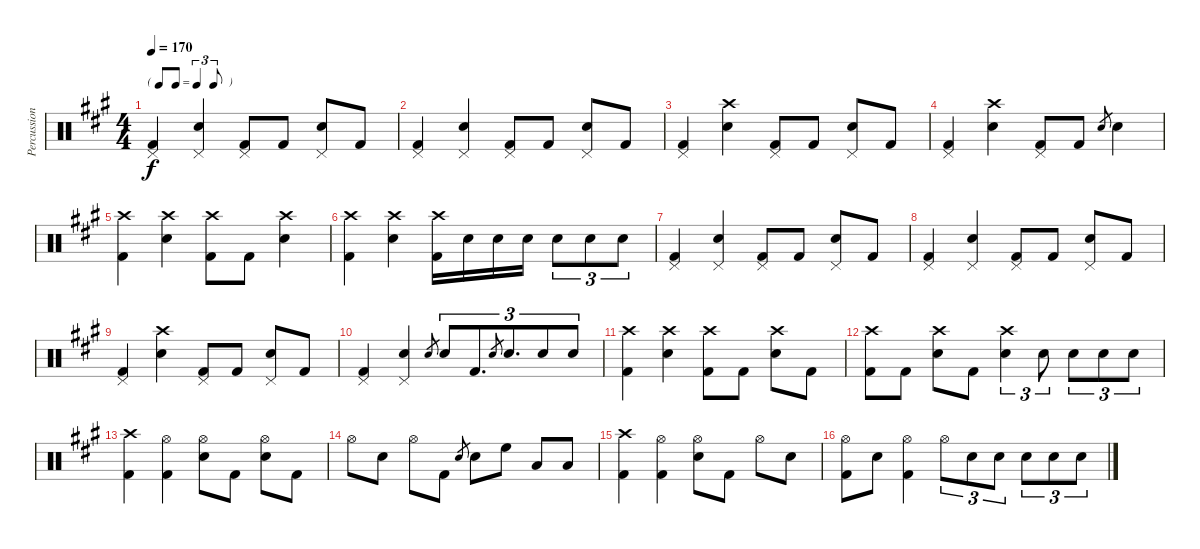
\track ("Percussion" "Percussion") {instrument percussion}
\staff {score}
\articulation defaults
\ts (4 4)
\tf triplet8th
\tempo 170
\clef neutral
\ks a
("Pedal Hi-Hat (hit)" "Kick (hit) 2").4{dy f} ("Pedal Hi-Hat (hit)" "Electric Snare (hit)").4 ("Pedal Hi-Hat (hit)" "Kick (hit) 2").8 "Kick (hit) 2".8 ("Pedal Hi-Hat (hit)" "Electric Snare (hit)").8 "Kick (hit) 2".8 |
("Pedal Hi-Hat (hit)" "Kick (hit) 2").4 ("Pedal Hi-Hat (hit)" "Electric Snare (hit)").4 ("Pedal Hi-Hat (hit)" "Kick (hit) 2").8 "Kick (hit) 2".8 ("Pedal Hi-Hat (hit)" "Electric Snare (hit)").8 "Kick (hit) 2".8 |
("Pedal Hi-Hat (hit)" "Kick (hit) 2").4 ("Crash high (hit)" "Electric Snare (hit)").4 ("Pedal Hi-Hat (hit)" "Kick (hit) 2").8 "Kick (hit) 2".8 ("Pedal Hi-Hat (hit)" "Electric Snare (hit)").8 "Kick (hit) 2".8 |
("Pedal Hi-Hat (hit)" "Kick (hit) 2").4 ("Crash high (hit)" "Electric Snare (hit)").4 ("Pedal Hi-Hat (hit)" "Kick (hit) 2").8 "Kick (hit) 2".8 "Electric Snare (hit)".8{gr} "Electric Snare (hit)".4 |
("Crash high (hit)" "Kick (hit) 2").4 ("Crash high (hit)" "Electric Snare (hit)").4 ("Crash high (hit)" "Kick (hit) 2").8 "Kick (hit) 2".8 ("Crash high (hit)" "Electric Snare (hit)").4 |
("Crash high (hit)" "Kick (hit) 2").4 ("Crash high (hit)" "Electric Snare (hit)").4 ("Crash high (hit)" "Kick (hit) 2").16 "Electric Snare (hit)".16 "Electric Snare (hit)".16 "Electric Snare (hit)".16 "Electric Snare (hit)".8{tu (3 2)} "Electric Snare (hit)".8{tu (3 2)} "Electric Snare (hit)".8{tu (3 2)} |
("Pedal Hi-Hat (hit)" "Kick (hit) 2").4 ("Pedal Hi-Hat (hit)" "Electric Snare (hit)").4 ("Pedal Hi-Hat (hit)" "Kick (hit) 2").8 "Kick (hit) 2".8 ("Pedal Hi-Hat (hit)" "Electric Snare (hit)").8 "Kick (hit) 2".8 |
("Pedal Hi-Hat (hit)" "Kick (hit) 2").4 ("Pedal Hi-Hat (hit)" "Electric Snare (hit)").4 ("Pedal Hi-Hat (hit)" "Kick (hit) 2").8 "Kick (hit) 2".8 ("Pedal Hi-Hat (hit)" "Electric Snare (hit)").8 "Kick (hit) 2".8 |
("Pedal Hi-Hat (hit)" "Kick (hit) 2").4 ("Crash high (hit)" "Electric Snare (hit)").4 ("Pedal Hi-Hat (hit)" "Kick (hit) 2").8 "Kick (hit) 2".8 ("Pedal Hi-Hat (hit)" "Electric Snare (hit)").8 "Kick (hit) 2".8 |
("Pedal Hi-Hat (hit)" "Kick (hit) 2").4 ("Pedal Hi-Hat (hit)" "Electric Snare (hit)").4 "Electric Snare (hit)".8{gr} "Electric Snare (hit)".8{tu (3 2)} "Kick (hit) 2".8{d tu (3 2)} "Electric Snare (hit)".8{gr} "Electric Snare (hit)".8{d tu (3 2)} "Electric Snare (hit)".8{tu (3 2)} "Electric Snare (hit)".8{tu (3 2)} |
("Crash high (hit)" "Kick (hit) 2").4 ("Crash high (hit)" "Electric Snare (hit)").4 ("Crash high (hit)" "Kick (hit) 2").8 "Kick (hit) 2".8 ("Crash high (hit)" "Electric Snare (hit)").8 "Kick (hit) 2".8 |
("Crash high (hit)" "Kick (hit) 2").8 "Kick (hit) 2".8 ("Crash high (hit)" "Electric Snare (hit)").8 "Kick (hit) 2".8 ("Crash high (hit)" "Electric Snare (hit)").4{tu (3 2)} "Electric Snare (hit)".8{tu (3 2)} "Electric Snare (hit)".8{tu (3 2)} "Electric Snare (hit)".8{tu (3 2)} "Electric Snare (hit)".8{tu (3 2)} |
("Crash high (hit)" "Kick (hit) 2").4 ("Hi-Hat (open)" "Kick (hit) 2").4 ("Hi-Hat (open)" "Electric Snare (hit)").8 "Kick (hit) 2".8 ("Hi-Hat (open)" "Electric Snare (hit)").8 "Kick (hit) 2".8 |
"Hi-Hat (open)".8 "Electric Snare (hit)".8 "Hi-Hat (open)".8 "Kick (hit) 2".8 "Electric Snare (hit)".8{gr} "Electric Snare (hit)".8 "High Floor Tom (hit)".8 "Low Tom (hit)".8 "Low Tom (hit)".8 |
("Crash high (hit)" "Kick (hit) 2").4 ("Hi-Hat (open)" "Kick (hit) 2").4 ("Hi-Hat (open)" "Electric Snare (hit)").8 "Kick (hit) 2".8 "Hi-Hat (open)".8 "Electric Snare (hit)".8 |
("Hi-Hat (open)" "Kick (hit) 2").8 "Electric Snare (hit)".8 ("Hi-Hat (open)" "Kick (hit) 2").4 "Hi-Hat (open)".8{tu (3 2)} "Electric Snare (hit)".8{tu (3 2)} "Electric Snare (hit)".8{tu (3 2)} "Electric Snare (hit)".8{tu (3 2)} "Electric Snare (hit)".8{tu (3 2)} "Electric Snare (hit)".8{tu (3 2)}
